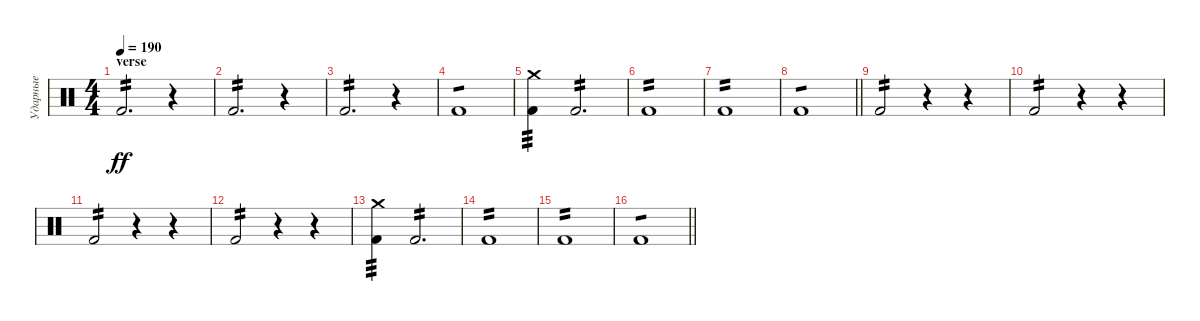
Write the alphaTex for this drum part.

\track ("Ударные" "Ударные") {instrument percussion}
\staff {score}
\articulation defaults
\ts (4 4)
\section ("" "verse")
\tempo 190
\clef neutral
\ks c "Kick (hit) 2".2{d tp 2 dy ff}
r.4 |
"Kick (hit) 2".2{d tp 2} r.4 |
"Kick (hit) 2".2{d tp 2} r.4 |
"Kick (hit) 2".1{tp 1} |
("Kick (hit) 2" "Crash medium (hit)").4{tp 3} "Kick (hit) 2".2{d tp 2} |
"Kick (hit) 2".1{tp 2} |
"Kick (hit) 2".1{tp 2} |
\barLineRight lightlight "Kick (hit) 2".1{tp 1}
|
"Kick (hit) 2".2{tp 2} r.4 r.4 |
"Kick (hit) 2".2{tp 2} r.4 r.4 |
"Kick (hit) 2".2{tp 2} r.4 r.4 |
"Kick (hit) 2".2{tp 2} r.4 r.4 |
("Kick (hit) 2" "Crash medium (hit)").4{tp 3} "Kick (hit) 2".2{d tp 2} |
"Kick (hit) 2".1{tp 2} |
"Kick (hit) 2".1{tp 2} |
\barLineRight lightlight "Kick (hit) 2".1{tp 1}
